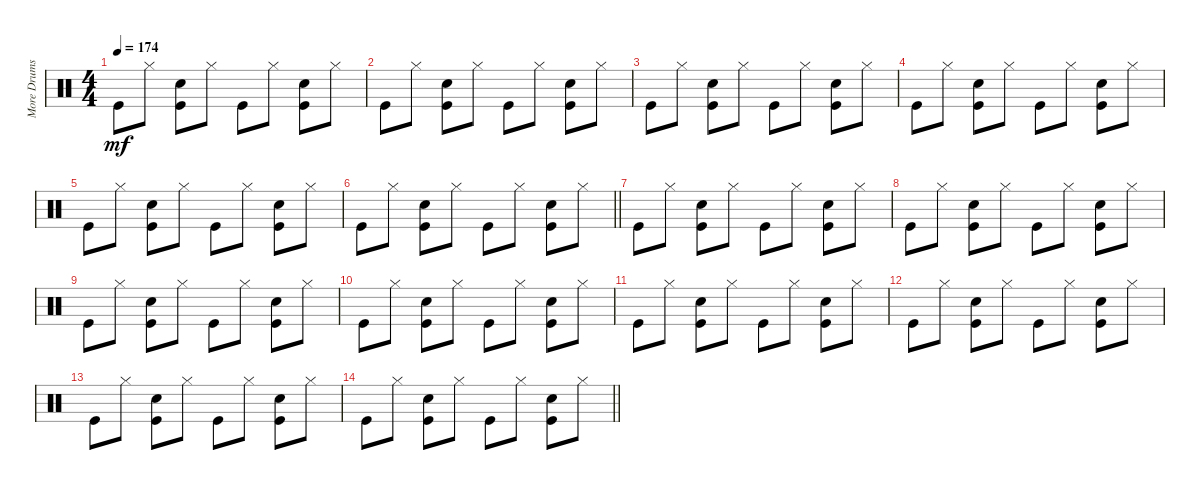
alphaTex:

\track ("More Drums" "More Drums") {instrument percussion}
\staff {score}
\articulation defaults
\ts (4 4)
\tempo 174
\clef neutral
\ks c "Kick (hit)".8{dy mf} "Hi-Hat (closed)".8
("Kick (hit)" "Electric Snare (hit)").8 "Hi-Hat (closed)".8 "Kick (hit)".8 "Hi-Hat (closed)".8 ("Kick (hit)" "Electric Snare (hit)").8 "Hi-Hat (closed)".8 |
"Kick (hit)".8 "Hi-Hat (closed)".8 ("Kick (hit)" "Electric Snare (hit)").8 "Hi-Hat (closed)".8 "Kick (hit)".8 "Hi-Hat (closed)".8 ("Kick (hit)" "Electric Snare (hit)").8 "Hi-Hat (closed)".8 |
"Kick (hit)".8 "Hi-Hat (closed)".8 ("Kick (hit)" "Electric Snare (hit)").8 "Hi-Hat (closed)".8 "Kick (hit)".8 "Hi-Hat (closed)".8 ("Kick (hit)" "Electric Snare (hit)").8 "Hi-Hat (closed)".8 |
"Kick (hit)".8 "Hi-Hat (closed)".8 ("Kick (hit)" "Electric Snare (hit)").8 "Hi-Hat (closed)".8 "Kick (hit)".8 "Hi-Hat (closed)".8 ("Kick (hit)" "Electric Snare (hit)").8 "Hi-Hat (closed)".8 |
"Kick (hit)".8 "Hi-Hat (closed)".8 ("Kick (hit)" "Electric Snare (hit)").8 "Hi-Hat (closed)".8 "Kick (hit)".8 "Hi-Hat (closed)".8 ("Kick (hit)" "Electric Snare (hit)").8 "Hi-Hat (closed)".8 |
\barLineRight lightlight "Kick (hit)".8 "Hi-Hat (closed)".8
("Kick (hit)" "Electric Snare (hit)").8 "Hi-Hat (closed)".8 "Kick (hit)".8 "Hi-Hat (closed)".8 ("Kick (hit)" "Electric Snare (hit)").8 "Hi-Hat (closed)".8 |
"Kick (hit)".8 "Hi-Hat (closed)".8 ("Kick (hit)" "Electric Snare (hit)").8 "Hi-Hat (closed)".8 "Kick (hit)".8 "Hi-Hat (closed)".8 ("Kick (hit)" "Electric Snare (hit)").8 "Hi-Hat (closed)".8 |
"Kick (hit)".8 "Hi-Hat (closed)".8 ("Kick (hit)" "Electric Snare (hit)").8 "Hi-Hat (closed)".8 "Kick (hit)".8 "Hi-Hat (closed)".8 ("Kick (hit)" "Electric Snare (hit)").8 "Hi-Hat (closed)".8 |
"Kick (hit)".8 "Hi-Hat (closed)".8 ("Kick (hit)" "Electric Snare (hit)").8 "Hi-Hat (closed)".8 "Kick (hit)".8 "Hi-Hat (closed)".8 ("Kick (hit)" "Electric Snare (hit)").8 "Hi-Hat (closed)".8 |
"Kick (hit)".8 "Hi-Hat (closed)".8 ("Kick (hit)" "Electric Snare (hit)").8 "Hi-Hat (closed)".8 "Kick (hit)".8 "Hi-Hat (closed)".8 ("Kick (hit)" "Electric Snare (hit)").8 "Hi-Hat (closed)".8 |
"Kick (hit)".8 "Hi-Hat (closed)".8 ("Kick (hit)" "Electric Snare (hit)").8 "Hi-Hat (closed)".8 "Kick (hit)".8 "Hi-Hat (closed)".8 ("Kick (hit)" "Electric Snare (hit)").8 "Hi-Hat (closed)".8 |
"Kick (hit)".8 "Hi-Hat (closed)".8 ("Kick (hit)" "Electric Snare (hit)").8 "Hi-Hat (closed)".8 "Kick (hit)".8 "Hi-Hat (closed)".8 ("Kick (hit)" "Electric Snare (hit)").8 "Hi-Hat (closed)".8 |
"Kick (hit)".8 "Hi-Hat (closed)".8 ("Kick (hit)" "Electric Snare (hit)").8 "Hi-Hat (closed)".8 "Kick (hit)".8 "Hi-Hat (closed)".8 ("Kick (hit)" "Electric Snare (hit)").8 "Hi-Hat (closed)".8 |
\barLineRight lightlight "Kick (hit)".8 "Hi-Hat (closed)".8
("Kick (hit)" "Electric Snare (hit)").8 "Hi-Hat (closed)".8 "Kick (hit)".8 "Hi-Hat (closed)".8 ("Kick (hit)" "Electric Snare (hit)").8 "Hi-Hat (closed)".8
